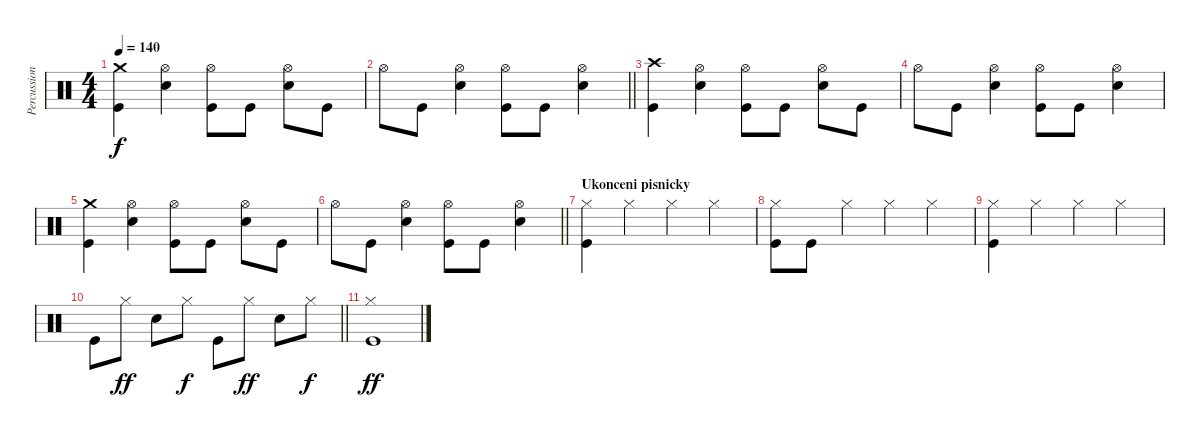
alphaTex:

\track ("Percussion" "Percussion") {instrument percussion}
\staff {score}
\articulation defaults
\ts (4 4)
\tempo 140
\clef neutral
\ks c
("Crash medium (hit)" "Kick (hit)").4{dy f} ("Hi-Hat (open)" "Electric Snare (hit)").4 ("Hi-Hat (open)" "Kick (hit)").8 "Kick (hit)".8 ("Hi-Hat (open)" "Electric Snare (hit)").8 "Kick (hit)".8 |
\barLineRight lightlight "Hi-Hat (open)".8 "Kick (hit)".8
("Hi-Hat (open)" "Electric Snare (hit)").4 ("Hi-Hat (open)" "Kick (hit)").8 "Kick (hit)".8 ("Hi-Hat (open)" "Electric Snare (hit)").4 |
("Crash high (hit)" "Kick (hit)").4 ("Hi-Hat (open)" "Electric Snare (hit)").4 ("Hi-Hat (open)" "Kick (hit)").8 "Kick (hit)".8 ("Hi-Hat (open)" "Electric Snare (hit)").8 "Kick (hit)".8 |
"Hi-Hat (open)".8 "Kick (hit)".8 ("Hi-Hat (open)" "Electric Snare (hit)").4 ("Hi-Hat (open)" "Kick (hit)").8 "Kick (hit)".8 ("Hi-Hat (open)" "Electric Snare (hit)").4 |
("Crash medium (hit)" "Kick (hit)").4 ("Hi-Hat (open)" "Electric Snare (hit)").4 ("Hi-Hat (open)" "Kick (hit)").8 "Kick (hit)".8 ("Hi-Hat (open)" "Electric Snare (hit)").8 "Kick (hit)".8 |
\barLineRight lightlight "Hi-Hat (open)".8 "Kick (hit)".8
("Hi-Hat (open)" "Electric Snare (hit)").4 ("Hi-Hat (open)" "Kick (hit)").8 "Kick (hit)".8 ("Hi-Hat (open)" "Electric Snare (hit)").4 |
\section ("" "Ukonceni pisnicky")
("Hi-Hat (closed)" "Kick (hit)").4 "Hi-Hat (closed)".4 "Hi-Hat (closed)".4 "Hi-Hat (closed)".4 |
("Hi-Hat (closed)" "Kick (hit)").8 "Kick (hit)".8 "Hi-Hat (closed)".4 "Hi-Hat (closed)".4 "Hi-Hat (closed)".4 |
("Hi-Hat (closed)" "Kick (hit)").4 "Hi-Hat (closed)".4 "Hi-Hat (closed)".4 "Hi-Hat (closed)".4 |
\barLineRight lightlight "Kick (hit)".8 "Hi-Hat (closed)".8{dy ff} "Electric Snare (hit)".8 "Hi-Hat (closed)".8{dy f} "Kick (hit)".8 "Hi-Hat (closed)".8{dy ff} "Electric Snare (hit)".8 "Hi-Hat (closed)".8{dy f}
|
("Hi-Hat (closed)" "Kick (hit)").1{dy ff}
